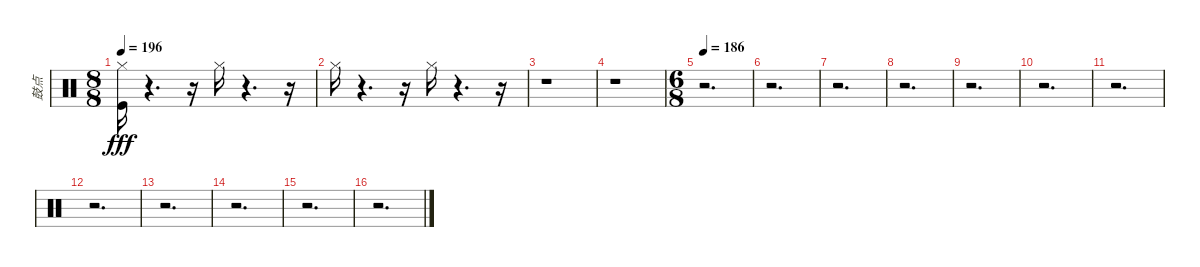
\track ("鼓点" "鼓点") {instrument percussion}
\staff {score}
\articulation defaults
\ts (8 8)
\tempo 196
\clef neutral
\ks c
("Kick (hit)" "Hi-Hat (closed)").16{dy fff} r.4{d} r.16 "Hi-Hat (closed)".16 r.4{d} r.16 |
"Hi-Hat (closed)".16 r.4{d} r.16 "Hi-Hat (closed)".16 r.4{d} r.16 |
r.1 |
r.1 |
\ts (6 8)
\tempo 186
r.2{d} |
r.2{d} |
r.2{d} |
r.2{d} |
r.2{d} |
r.2{d} |
r.2{d} |
r.2{d} |
r.2{d} |
r.2{d} |
r.2{d} |
r.2{d}
